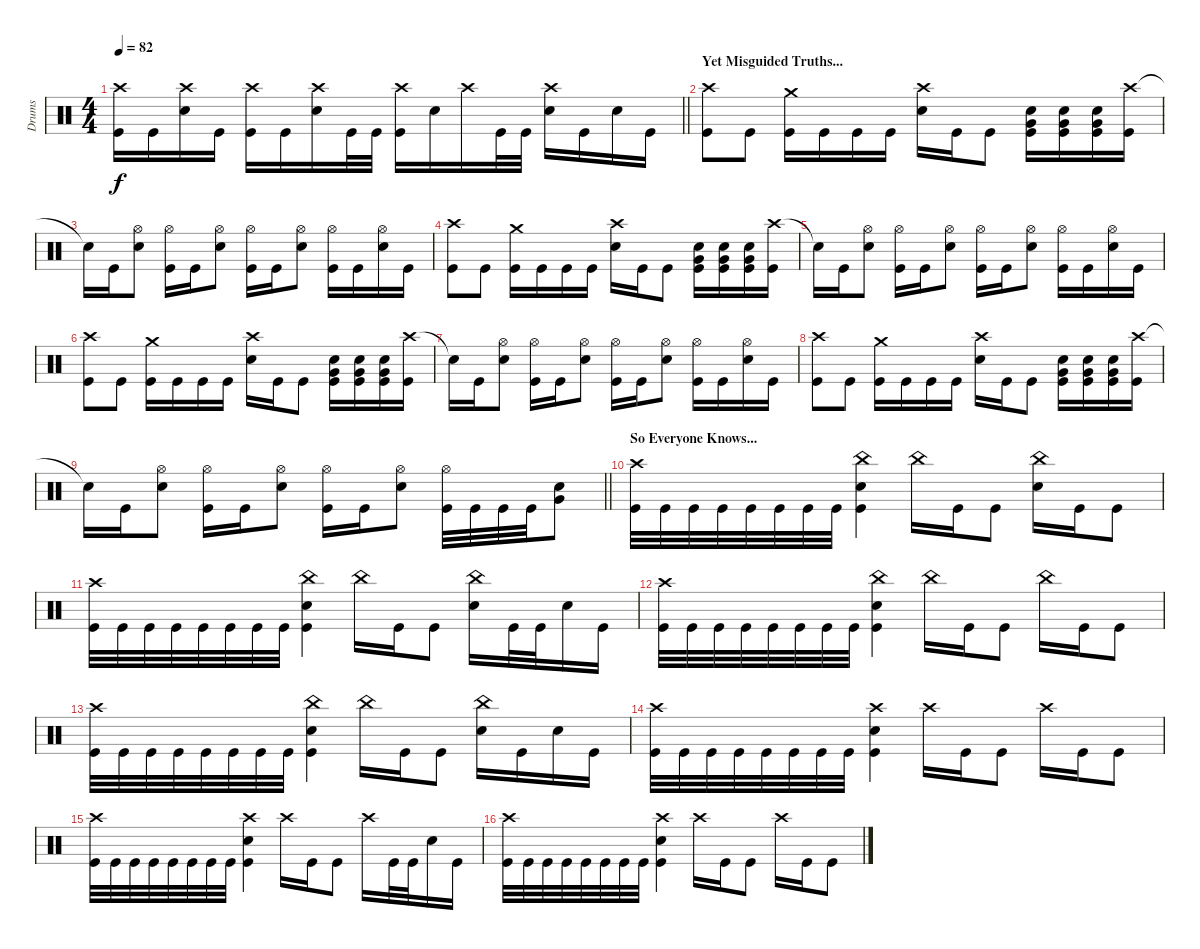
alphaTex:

\track ("Drums" "Drums") {instrument percussion bank 177}
\staff {score}
\articulation defaults
\ts (4 4)
\tempo 82
\clef neutral
\barLineRight lightlight
\ks c
("Crash high (hit)" "Kick (hit)").16{dy f} "Kick (hit)".16 ("Crash high (hit)" "Snare (hit) 2").16 "Kick (hit)".16 ("Crash high (hit)" "Kick (hit)").16 "Kick (hit)".16 ("Crash high (hit)" "Snare (hit) 2").16 "Kick (hit)".32 "Kick (hit)".32 ("Crash high (hit)" "Kick (hit)").16 "Snare (hit) 2".16 "Crash high (hit)".16 "Kick (hit)".32 "Kick (hit)".32 ("Crash high (hit)" "Snare (hit) 2").16 "Kick (hit)".16 "Snare (hit) 2".16 "Kick (hit)".16 |
\section ("" "Yet Misguided Truths...")
("Crash high (hit)" "Kick (hit)").8 "Kick (hit)".8 ("Crash medium (hit)" "Kick (hit)").16 "Kick (hit)".16 "Kick (hit)".16 "Kick (hit)".16 ("Crash high (hit)" "Snare (hit) 2").16 "Kick (hit)".16 "Kick (hit)".8 ("Snare (hit) 2" "Very Low Tom (hit)" "Kick (hit)").16 ("Snare (hit) 2" "Very Low Tom (hit)" "Kick (hit)").16 ("Snare (hit) 2" "Very Low Tom (hit)" "Kick (hit)").16 ("Crash high (hit)" "Kick (hit)").16 |
"Snare (hit)"{t}.16 "Kick (hit)".16 ("Hi-Hat (open)" "Snare (hit) 2").8 ("Hi-Hat (open)" "Kick (hit)").16 "Kick (hit)".16 ("Hi-Hat (open)" "Snare (hit) 2").8 ("Hi-Hat (open)" "Kick (hit)").16 "Kick (hit)".16 ("Hi-Hat (open)" "Snare (hit) 2").8 ("Hi-Hat (open)" "Kick (hit)").16 "Kick (hit)".16 ("Hi-Hat (open)" "Snare (hit) 2").16 "Kick (hit)".16 |
("Crash high (hit)" "Kick (hit)").8 "Kick (hit)".8 ("Crash medium (hit)" "Kick (hit)").16 "Kick (hit)".16 "Kick (hit)".16 "Kick (hit)".16 ("Crash high (hit)" "Snare (hit) 2").16 "Kick (hit)".16 "Kick (hit)".8 ("Snare (hit) 2" "Very Low Tom (hit)" "Kick (hit)").16 ("Snare (hit) 2" "Very Low Tom (hit)" "Kick (hit)").16 ("Snare (hit) 2" "Very Low Tom (hit)" "Kick (hit)").16 ("Crash high (hit)" "Kick (hit)").16 |
"Snare (hit)"{t}.16 "Kick (hit)".16 ("Hi-Hat (open)" "Snare (hit) 2").8 ("Hi-Hat (open)" "Kick (hit)").16 "Kick (hit)".16 ("Hi-Hat (open)" "Snare (hit) 2").8 ("Hi-Hat (open)" "Kick (hit)").16 "Kick (hit)".16 ("Hi-Hat (open)" "Snare (hit) 2").8 ("Hi-Hat (open)" "Kick (hit)").16 "Kick (hit)".16 ("Hi-Hat (open)" "Snare (hit) 2").16 "Kick (hit)".16 |
("Crash high (hit)" "Kick (hit)").8 "Kick (hit)".8 ("Crash medium (hit)" "Kick (hit)").16 "Kick (hit)".16 "Kick (hit)".16 "Kick (hit)".16 ("Crash high (hit)" "Snare (hit) 2").16 "Kick (hit)".16 "Kick (hit)".8 ("Snare (hit) 2" "Very Low Tom (hit)" "Kick (hit)").16 ("Snare (hit) 2" "Very Low Tom (hit)" "Kick (hit)").16 ("Snare (hit) 2" "Very Low Tom (hit)" "Kick (hit)").16 ("Crash high (hit)" "Kick (hit)").16 |
"Snare (hit)"{t}.16 "Kick (hit)".16 ("Hi-Hat (open)" "Snare (hit) 2").8 ("Hi-Hat (open)" "Kick (hit)").16 "Kick (hit)".16 ("Hi-Hat (open)" "Snare (hit) 2").8 ("Hi-Hat (open)" "Kick (hit)").16 "Kick (hit)".16 ("Hi-Hat (open)" "Snare (hit) 2").8 ("Hi-Hat (open)" "Kick (hit)").16 "Kick (hit)".16 ("Hi-Hat (open)" "Snare (hit) 2").16 "Kick (hit)".16 |
("Crash high (hit)" "Kick (hit)").8 "Kick (hit)".8 ("Crash medium (hit)" "Kick (hit)").16 "Kick (hit)".16 "Kick (hit)".16 "Kick (hit)".16 ("Crash high (hit)" "Snare (hit) 2").16 "Kick (hit)".16 "Kick (hit)".8 ("Snare (hit) 2" "Very Low Tom (hit)" "Kick (hit)").16 ("Snare (hit) 2" "Very Low Tom (hit)" "Kick (hit)").16 ("Snare (hit) 2" "Very Low Tom (hit)" "Kick (hit)").16 ("Crash high (hit)" "Kick (hit)").16 |
\barLineRight lightlight "Snare (hit)"{t}.16 "Kick (hit)".16
("Hi-Hat (open)" "Snare (hit) 2").8 ("Hi-Hat (open)" "Kick (hit)").16 "Kick (hit)".16 ("Hi-Hat (open)" "Snare (hit) 2").8 ("Hi-Hat (open)" "Kick (hit)").16 "Kick (hit)".16 ("Hi-Hat (open)" "Snare (hit) 2").8 ("Hi-Hat (open)" "Kick (hit)").32 "Kick (hit)".32 "Kick (hit)".32 "Kick (hit)".32 ("Very Low Tom (hit)" "Snare (hit) 2").8 |
\section ("" "So Everyone Knows...")
("Crash high (hit)" "Kick (hit)").32 "Kick (hit)".32 "Kick (hit)".32 "Kick (hit)".32 "Kick (hit)".32 "Kick (hit)".32 "Kick (hit)".32 "Kick (hit)".32 ("China (hit)" "Snare (hit) 2" "Kick (hit)").4 "China (hit)".16 "Kick (hit)".16 "Kick (hit)".8 ("China (hit)" "Snare (hit) 2").16 "Kick (hit)".16 "Kick (hit)".8 |
("Crash high (hit)" "Kick (hit)").32 "Kick (hit)".32 "Kick (hit)".32 "Kick (hit)".32 "Kick (hit)".32 "Kick (hit)".32 "Kick (hit)".32 "Kick (hit)".32 ("China (hit)" "Snare (hit) 2" "Kick (hit)").4 "China (hit)".16 "Kick (hit)".16 "Kick (hit)".8 ("China (hit)" "Snare (hit) 2").16 "Kick (hit)".32 "Kick (hit)".32 "Snare (hit) 2".16 "Kick (hit)".16 |
("Crash high (hit)" "Kick (hit)").32 "Kick (hit)".32 "Kick (hit)".32 "Kick (hit)".32 "Kick (hit)".32 "Kick (hit)".32 "Kick (hit)".32 "Kick (hit)".32 ("China (hit)" "Snare (hit) 2" "Kick (hit)").4 "China (hit)".16 "Kick (hit)".16 "Kick (hit)".8 "China (hit)".16 "Kick (hit)".16 "Kick (hit)".8 |
("Crash high (hit)" "Kick (hit)").32 "Kick (hit)".32 "Kick (hit)".32 "Kick (hit)".32 "Kick (hit)".32 "Kick (hit)".32 "Kick (hit)".32 "Kick (hit)".32 ("China (hit)" "Snare (hit) 2" "Kick (hit)").4 "China (hit)".16 "Kick (hit)".16 "Kick (hit)".8 ("China (hit)" "Snare (hit) 2").16 "Kick (hit)".16 "Snare (hit) 2".16 "Kick (hit)".16 |
("Crash high (hit)" "Kick (hit)").32 "Kick (hit)".32 "Kick (hit)".32 "Kick (hit)".32 "Kick (hit)".32 "Kick (hit)".32 "Kick (hit)".32 "Kick (hit)".32 ("Crash high (hit)" "Snare (hit) 2" "Kick (hit)").4 "Crash high (hit)".16 "Kick (hit)".16 "Kick (hit)".8 "Crash high (hit)".16 "Kick (hit)".16 "Kick (hit)".8 |
("Crash high (hit)" "Kick (hit)").32 "Kick (hit)".32 "Kick (hit)".32 "Kick (hit)".32 "Kick (hit)".32 "Kick (hit)".32 "Kick (hit)".32 "Kick (hit)".32 ("Crash high (hit)" "Snare (hit) 2" "Kick (hit)").4 "Crash high (hit)".16 "Kick (hit)".16 "Kick (hit)".8 "Crash high (hit)".16 "Kick (hit)".32 "Kick (hit)".32 "Snare (hit) 2".16 "Kick (hit)".16 |
("Crash high (hit)" "Kick (hit)").32 "Kick (hit)".32 "Kick (hit)".32 "Kick (hit)".32 "Kick (hit)".32 "Kick (hit)".32 "Kick (hit)".32 "Kick (hit)".32 ("Crash high (hit)" "Snare (hit) 2" "Kick (hit)").4 "Crash high (hit)".16 "Kick (hit)".16 "Kick (hit)".8 "Crash high (hit)".16 "Kick (hit)".16 "Kick (hit)".8
